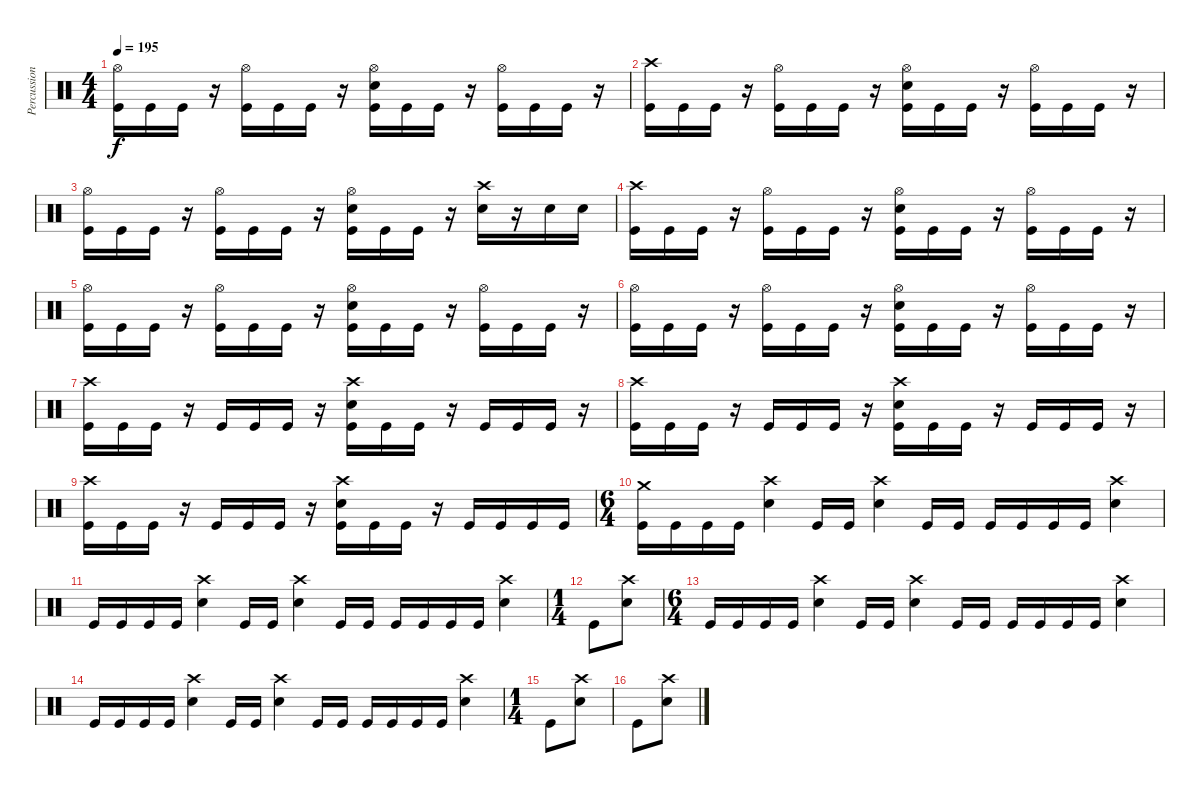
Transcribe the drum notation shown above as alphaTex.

\track ("Percussion" "Percussion") {instrument percussion}
\staff {score}
\articulation defaults
\ts (4 4)
\tempo 195
\clef neutral
\ks c
("Hi-Hat (open)" "Kick (hit)").16{dy f} "Kick (hit)".16 "Kick (hit)".16 r.16 ("Hi-Hat (open)" "Kick (hit)").16 "Kick (hit)".16 "Kick (hit)".16 r.16 ("Hi-Hat (open)" "Electric Snare (hit)" "Kick (hit)").16 "Kick (hit)".16 "Kick (hit)".16 r.16 ("Hi-Hat (open)" "Kick (hit)").16 "Kick (hit)".16 "Kick (hit)".16 r.16 |
("Crash high (hit)" "Kick (hit)").16 "Kick (hit)".16 "Kick (hit)".16 r.16 ("Hi-Hat (open)" "Kick (hit)").16 "Kick (hit)".16 "Kick (hit)".16 r.16 ("Hi-Hat (open)" "Electric Snare (hit)" "Kick (hit)").16 "Kick (hit)".16 "Kick (hit)".16 r.16 ("Hi-Hat (open)" "Kick (hit)").16 "Kick (hit)".16 "Kick (hit)".16 r.16 |
("Hi-Hat (open)" "Kick (hit)").16 "Kick (hit)".16 "Kick (hit)".16 r.16 ("Hi-Hat (open)" "Kick (hit)").16 "Kick (hit)".16 "Kick (hit)".16 r.16 ("Hi-Hat (open)" "Electric Snare (hit)" "Kick (hit)").16 "Kick (hit)".16 "Kick (hit)".16 r.16 ("Crash high (hit)" "Electric Snare (hit)").16 r.16 "Electric Snare (hit)".16 "Electric Snare (hit)".16 |
("Crash high (hit)" "Kick (hit)").16 "Kick (hit)".16 "Kick (hit)".16 r.16 ("Hi-Hat (open)" "Kick (hit)").16 "Kick (hit)".16 "Kick (hit)".16 r.16 ("Hi-Hat (open)" "Electric Snare (hit)" "Kick (hit)").16 "Kick (hit)".16 "Kick (hit)".16 r.16 ("Hi-Hat (open)" "Kick (hit)").16 "Kick (hit)".16 "Kick (hit)".16 r.16 |
("Hi-Hat (open)" "Kick (hit)").16 "Kick (hit)".16 "Kick (hit)".16 r.16 ("Hi-Hat (open)" "Kick (hit)").16 "Kick (hit)".16 "Kick (hit)".16 r.16 ("Hi-Hat (open)" "Electric Snare (hit)" "Kick (hit)").16 "Kick (hit)".16 "Kick (hit)".16 r.16 ("Hi-Hat (open)" "Kick (hit)").16 "Kick (hit)".16 "Kick (hit)".16 r.16 |
("Hi-Hat (open)" "Kick (hit)").16 "Kick (hit)".16 "Kick (hit)".16 r.16 ("Hi-Hat (open)" "Kick (hit)").16 "Kick (hit)".16 "Kick (hit)".16 r.16 ("Hi-Hat (open)" "Electric Snare (hit)" "Kick (hit)").16 "Kick (hit)".16 "Kick (hit)".16 r.16 ("Hi-Hat (open)" "Kick (hit)").16 "Kick (hit)".16 "Kick (hit)".16 r.16 |
("Crash high (hit)" "Kick (hit)").16 "Kick (hit)".16 "Kick (hit)".16 r.16 "Kick (hit)".16 "Kick (hit)".16 "Kick (hit)".16 r.16 ("Crash high (hit)" "Electric Snare (hit)" "Kick (hit)").16 "Kick (hit)".16 "Kick (hit)".16 r.16 "Kick (hit)".16 "Kick (hit)".16 "Kick (hit)".16 r.16 |
("Crash high (hit)" "Kick (hit)").16 "Kick (hit)".16 "Kick (hit)".16 r.16 "Kick (hit)".16 "Kick (hit)".16 "Kick (hit)".16 r.16 ("Crash high (hit)" "Electric Snare (hit)" "Kick (hit)").16 "Kick (hit)".16 "Kick (hit)".16 r.16 "Kick (hit)".16 "Kick (hit)".16 "Kick (hit)".16 r.16 |
("Crash high (hit)" "Kick (hit)").16 "Kick (hit)".16 "Kick (hit)".16 r.16 "Kick (hit)".16 "Kick (hit)".16 "Kick (hit)".16 r.16 ("Crash high (hit)" "Electric Snare (hit)" "Kick (hit)").16 "Kick (hit)".16 "Kick (hit)".16 r.16 "Kick (hit)".16 "Kick (hit)".16 "Kick (hit)".16 "Kick (hit)".16 |
\ts (6 4)
("Crash medium (hit)" "Kick (hit)").16 "Kick (hit)".16 "Kick (hit)".16 "Kick (hit)".16 ("Crash high (hit)" "Electric Snare (hit)").4 "Kick (hit)".16 "Kick (hit)".16 ("Crash high (hit)" "Electric Snare (hit)").4 "Kick (hit)".16 "Kick (hit)".16 "Kick (hit)".16 "Kick (hit)".16 "Kick (hit)".16 "Kick (hit)".16 ("Crash high (hit)" "Electric Snare (hit)").4 |
"Kick (hit)".16 "Kick (hit)".16 "Kick (hit)".16 "Kick (hit)".16 ("Crash high (hit)" "Electric Snare (hit)").4 "Kick (hit)".16 "Kick (hit)".16 ("Crash high (hit)" "Electric Snare (hit)").4 "Kick (hit)".16 "Kick (hit)".16 "Kick (hit)".16 "Kick (hit)".16 "Kick (hit)".16 "Kick (hit)".16 ("Crash high (hit)" "Electric Snare (hit)").4 |
\ts (1 4)
"Kick (hit)".8 ("Crash high (hit)" "Electric Snare (hit)").8 |
\ts (6 4)
"Kick (hit)".16 "Kick (hit)".16 "Kick (hit)".16 "Kick (hit)".16 ("Crash high (hit)" "Electric Snare (hit)").4 "Kick (hit)".16 "Kick (hit)".16 ("Crash high (hit)" "Electric Snare (hit)").4 "Kick (hit)".16 "Kick (hit)".16 "Kick (hit)".16 "Kick (hit)".16 "Kick (hit)".16 "Kick (hit)".16 ("Crash high (hit)" "Electric Snare (hit)").4 |
"Kick (hit)".16 "Kick (hit)".16 "Kick (hit)".16 "Kick (hit)".16 ("Crash high (hit)" "Electric Snare (hit)").4 "Kick (hit)".16 "Kick (hit)".16 ("Crash high (hit)" "Electric Snare (hit)").4 "Kick (hit)".16 "Kick (hit)".16 "Kick (hit)".16 "Kick (hit)".16 "Kick (hit)".16 "Kick (hit)".16 ("Crash high (hit)" "Electric Snare (hit)").4 |
\ts (1 4)
"Kick (hit)".8 ("Crash high (hit)" "Electric Snare (hit)").8 |
"Kick (hit)".8 ("Crash high (hit)" "Electric Snare (hit)").8
